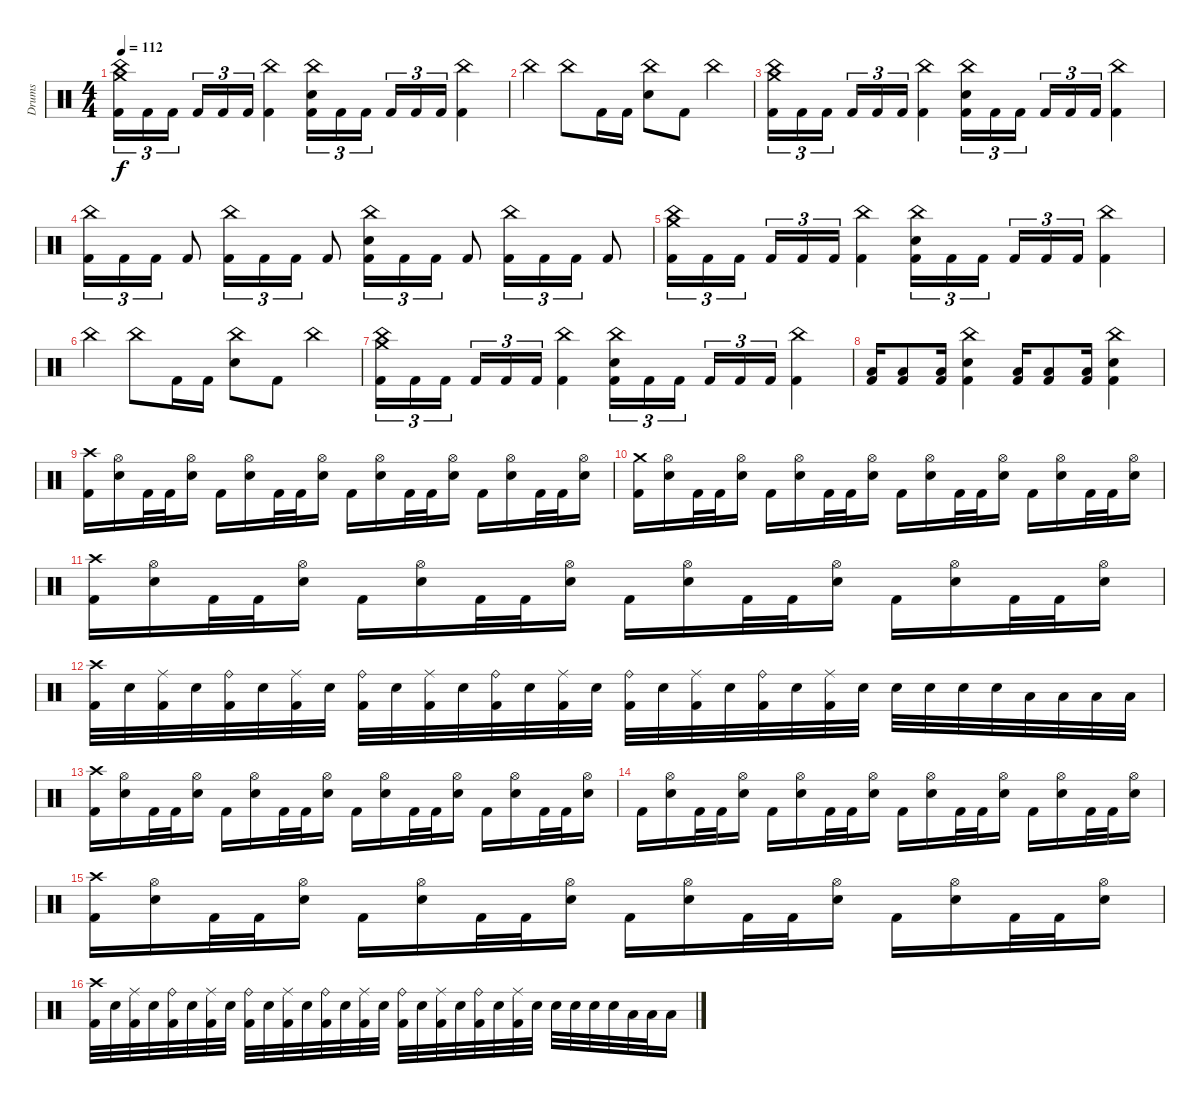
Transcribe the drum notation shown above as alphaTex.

\track ("Drums" "Drums") {instrument percussion}
\staff {score}
\articulation defaults
\ts (4 4)
\tempo 112
\clef neutral
\ks c
("Crash medium (hit)" "China (hit)" "Kick (hit) 2").16{tu (3 2) dy f} "Kick (hit) 2".16{tu (3 2)} "Kick (hit) 2".16{tu (3 2) beam splitsecondary} "Kick (hit) 2".16{tu (3 2)} "Kick (hit) 2".16{tu (3 2)} "Kick (hit) 2".16{tu (3 2)} ("China (hit)" "Kick (hit) 2").4 ("China (hit)" "Electric Snare (hit)" "Kick (hit) 2").16{tu (3 2)} "Kick (hit) 2".16{tu (3 2)} "Kick (hit) 2".16{tu (3 2) beam splitsecondary} "Kick (hit) 2".16{tu (3 2)} "Kick (hit) 2".16{tu (3 2)} "Kick (hit) 2".16{tu (3 2)} ("China (hit)" "Kick (hit) 2").4 |
"China (hit)".4 "China (hit)".8 "Kick (hit) 2".16 "Kick (hit) 2".16 ("China (hit)" "Electric Snare (hit)").8 "Kick (hit) 2".8 "China (hit)".4 |
("Crash medium (hit)" "China (hit)" "Kick (hit) 2").16{tu (3 2)} "Kick (hit) 2".16{tu (3 2)} "Kick (hit) 2".16{tu (3 2) beam splitsecondary} "Kick (hit) 2".16{tu (3 2)} "Kick (hit) 2".16{tu (3 2)} "Kick (hit) 2".16{tu (3 2)} ("China (hit)" "Kick (hit) 2").4 ("China (hit)" "Electric Snare (hit)" "Kick (hit) 2").16{tu (3 2)} "Kick (hit) 2".16{tu (3 2)} "Kick (hit) 2".16{tu (3 2) beam splitsecondary} "Kick (hit) 2".16{tu (3 2)} "Kick (hit) 2".16{tu (3 2)} "Kick (hit) 2".16{tu (3 2)} ("China (hit)" "Kick (hit) 2").4 |
("China (hit)" "Kick (hit) 2").16{tu (3 2)} "Kick (hit) 2".16{tu (3 2)} "Kick (hit) 2".16{tu (3 2)} "Kick (hit) 2".8 ("China (hit)" "Kick (hit) 2").16{tu (3 2)} "Kick (hit) 2".16{tu (3 2)} "Kick (hit) 2".16{tu (3 2)} "Kick (hit) 2".8 ("China (hit)" "Electric Snare (hit)" "Kick (hit) 2").16{tu (3 2)} "Kick (hit) 2".16{tu (3 2)} "Kick (hit) 2".16{tu (3 2)} "Kick (hit) 2".8 ("China (hit)" "Kick (hit) 2").16{tu (3 2)} "Kick (hit) 2".16{tu (3 2)} "Kick (hit) 2".16{tu (3 2)} "Kick (hit) 2".8 |
("Crash medium (hit)" "China (hit)" "Kick (hit) 2").16{tu (3 2)} "Kick (hit) 2".16{tu (3 2)} "Kick (hit) 2".16{tu (3 2) beam splitsecondary} "Kick (hit) 2".16{tu (3 2)} "Kick (hit) 2".16{tu (3 2)} "Kick (hit) 2".16{tu (3 2)} ("China (hit)" "Kick (hit) 2").4 ("China (hit)" "Electric Snare (hit)" "Kick (hit) 2").16{tu (3 2)} "Kick (hit) 2".16{tu (3 2)} "Kick (hit) 2".16{tu (3 2) beam splitsecondary} "Kick (hit) 2".16{tu (3 2)} "Kick (hit) 2".16{tu (3 2)} "Kick (hit) 2".16{tu (3 2)} ("China (hit)" "Kick (hit) 2").4 |
"China (hit)".4 "China (hit)".8 "Kick (hit) 2".16 "Kick (hit) 2".16 ("China (hit)" "Electric Snare (hit)").8 "Kick (hit) 2".8 "China (hit)".4 |
("Crash medium (hit)" "China (hit)" "Kick (hit) 2").16{tu (3 2)} "Kick (hit) 2".16{tu (3 2)} "Kick (hit) 2".16{tu (3 2) beam splitsecondary} "Kick (hit) 2".16{tu (3 2)} "Kick (hit) 2".16{tu (3 2)} "Kick (hit) 2".16{tu (3 2)} ("China (hit)" "Kick (hit) 2").4 ("China (hit)" "Electric Snare (hit)" "Kick (hit) 2").16{tu (3 2)} "Kick (hit) 2".16{tu (3 2)} "Kick (hit) 2".16{tu (3 2) beam splitsecondary} "Kick (hit) 2".16{tu (3 2)} "Kick (hit) 2".16{tu (3 2)} "Kick (hit) 2".16{tu (3 2)} ("China (hit)" "Kick (hit) 2").4 |
("Low Floor Tom (hit)" "Kick (hit) 2").16 ("Low Floor Tom (hit)" "Kick (hit) 2").8 ("Low Floor Tom (hit)" "Kick (hit) 2").16 ("China (hit)" "Electric Snare (hit)" "Kick (hit) 2").4 ("Low Floor Tom (hit)" "Kick (hit) 2").16 ("Low Floor Tom (hit)" "Kick (hit) 2").8 ("Low Floor Tom (hit)" "Kick (hit) 2").16 ("China (hit)" "Electric Snare (hit)" "Kick (hit) 2").4 |
("Crash high (hit)" "Kick (hit) 2").16 ("Hi-Hat (open)" "Electric Snare (hit)").16 "Kick (hit) 2".32 "Kick (hit) 2".32 ("Hi-Hat (open)" "Electric Snare (hit)").16 "Kick (hit) 2".16 ("Hi-Hat (open)" "Electric Snare (hit)").16 "Kick (hit) 2".32 "Kick (hit) 2".32 ("Hi-Hat (open)" "Electric Snare (hit)").16 "Kick (hit) 2".16 ("Hi-Hat (open)" "Electric Snare (hit)").16 "Kick (hit) 2".32 "Kick (hit) 2".32 ("Hi-Hat (open)" "Electric Snare (hit)").16 "Kick (hit) 2".16 ("Hi-Hat (open)" "Electric Snare (hit)").16 "Kick (hit) 2".32 "Kick (hit) 2".32 ("Hi-Hat (open)" "Electric Snare (hit)").16 |
("Crash medium (hit)" "Kick (hit) 2").16 ("Hi-Hat (open)" "Electric Snare (hit)").16 "Kick (hit) 2".32 "Kick (hit) 2".32 ("Hi-Hat (open)" "Electric Snare (hit)").16 "Kick (hit) 2".16 ("Hi-Hat (open)" "Electric Snare (hit)").16 "Kick (hit) 2".32 "Kick (hit) 2".32 ("Hi-Hat (open)" "Electric Snare (hit)").16 "Kick (hit) 2".16 ("Hi-Hat (open)" "Electric Snare (hit)").16 "Kick (hit) 2".32 "Kick (hit) 2".32 ("Hi-Hat (open)" "Electric Snare (hit)").16 "Kick (hit) 2".16 ("Hi-Hat (open)" "Electric Snare (hit)").16 "Kick (hit) 2".32 "Kick (hit) 2".32 ("Hi-Hat (open)" "Electric Snare (hit)").16 |
("Crash high (hit)" "Kick (hit) 2").16 ("Hi-Hat (open)" "Electric Snare (hit)").16 "Kick (hit) 2".32 "Kick (hit) 2".32 ("Hi-Hat (open)" "Electric Snare (hit)").16 "Kick (hit) 2".16 ("Hi-Hat (open)" "Electric Snare (hit)").16 "Kick (hit) 2".32 "Kick (hit) 2".32 ("Hi-Hat (open)" "Electric Snare (hit)").16 "Kick (hit) 2".16 ("Hi-Hat (open)" "Electric Snare (hit)").16 "Kick (hit) 2".32 "Kick (hit) 2".32 ("Hi-Hat (open)" "Electric Snare (hit)").16 "Kick (hit) 2".16 ("Hi-Hat (open)" "Electric Snare (hit)").16 "Kick (hit) 2".32 "Kick (hit) 2".32 ("Hi-Hat (open)" "Electric Snare (hit)").16 |
("Crash high (hit)" "Kick (hit) 2").32 "Electric Snare (hit)".32 ("Ride (middle)" "Kick (hit) 2").32 "Electric Snare (hit)".32 ("Ride (bell)" "Kick (hit) 2").32 "Electric Snare (hit)".32 ("Ride (middle)" "Kick (hit) 2").32 "Electric Snare (hit)".32 ("Ride (bell)" "Kick (hit) 2").32 "Electric Snare (hit)".32 ("Ride (middle)" "Kick (hit) 2").32 "Electric Snare (hit)".32 ("Ride (bell)" "Kick (hit) 2").32 "Electric Snare (hit)".32 ("Ride (middle)" "Kick (hit) 2").32 "Electric Snare (hit)".32 ("Ride (bell)" "Kick (hit) 2").32 "Electric Snare (hit)".32 ("Ride (middle)" "Kick (hit) 2").32 "Electric Snare (hit)".32 ("Ride (bell)" "Kick (hit) 2").32 "Electric Snare (hit)".32 ("Ride (middle)" "Kick (hit) 2").32 "Electric Snare (hit)".32 "Electric Snare (hit)".32 "Electric Snare (hit)".32 "Electric Snare (hit)".32 "Electric Snare (hit)".32 "Low Tom (hit)".32 "Low Tom (hit)".32 "Low Tom (hit)".32 "Low Tom (hit)".32 |
("Crash high (hit)" "Kick (hit) 2").16 ("Hi-Hat (open)" "Electric Snare (hit)").16 "Kick (hit) 2".32 "Kick (hit) 2".32 ("Hi-Hat (open)" "Electric Snare (hit)").16 "Kick (hit) 2".16 ("Hi-Hat (open)" "Electric Snare (hit)").16 "Kick (hit) 2".32 "Kick (hit) 2".32 ("Hi-Hat (open)" "Electric Snare (hit)").16 "Kick (hit) 2".16 ("Hi-Hat (open)" "Electric Snare (hit)").16 "Kick (hit) 2".32 "Kick (hit) 2".32 ("Hi-Hat (open)" "Electric Snare (hit)").16 "Kick (hit) 2".16 ("Hi-Hat (open)" "Electric Snare (hit)").16 "Kick (hit) 2".32 "Kick (hit) 2".32 ("Hi-Hat (open)" "Electric Snare (hit)").16 |
"Kick (hit) 2".16 ("Hi-Hat (open)" "Electric Snare (hit)").16 "Kick (hit) 2".32 "Kick (hit) 2".32 ("Hi-Hat (open)" "Electric Snare (hit)").16 "Kick (hit) 2".16 ("Hi-Hat (open)" "Electric Snare (hit)").16 "Kick (hit) 2".32 "Kick (hit) 2".32 ("Hi-Hat (open)" "Electric Snare (hit)").16 "Kick (hit) 2".16 ("Hi-Hat (open)" "Electric Snare (hit)").16 "Kick (hit) 2".32 "Kick (hit) 2".32 ("Hi-Hat (open)" "Electric Snare (hit)").16 "Kick (hit) 2".16 ("Hi-Hat (open)" "Electric Snare (hit)").16 "Kick (hit) 2".32 "Kick (hit) 2".32 ("Hi-Hat (open)" "Electric Snare (hit)").16 |
("Crash high (hit)" "Kick (hit) 2").16 ("Hi-Hat (open)" "Electric Snare (hit)").16 "Kick (hit) 2".32 "Kick (hit) 2".32 ("Hi-Hat (open)" "Electric Snare (hit)").16 "Kick (hit) 2".16 ("Hi-Hat (open)" "Electric Snare (hit)").16 "Kick (hit) 2".32 "Kick (hit) 2".32 ("Hi-Hat (open)" "Electric Snare (hit)").16 "Kick (hit) 2".16 ("Hi-Hat (open)" "Electric Snare (hit)").16 "Kick (hit) 2".32 "Kick (hit) 2".32 ("Hi-Hat (open)" "Electric Snare (hit)").16 "Kick (hit) 2".16 ("Hi-Hat (open)" "Electric Snare (hit)").16 "Kick (hit) 2".32 "Kick (hit) 2".32 ("Hi-Hat (open)" "Electric Snare (hit)").16 |
("Crash high (hit)" "Kick (hit) 2").32 "Electric Snare (hit)".32 ("Ride (middle)" "Kick (hit) 2").32 "Electric Snare (hit)".32 ("Ride (bell)" "Kick (hit) 2").32 "Electric Snare (hit)".32 ("Ride (middle)" "Kick (hit) 2").32 "Electric Snare (hit)".32 ("Ride (bell)" "Kick (hit) 2").32 "Electric Snare (hit)".32 ("Ride (middle)" "Kick (hit) 2").32 "Electric Snare (hit)".32 ("Ride (bell)" "Kick (hit) 2").32 "Electric Snare (hit)".32 ("Ride (middle)" "Kick (hit) 2").32 "Electric Snare (hit)".32 ("Ride (bell)" "Kick (hit) 2").32 "Electric Snare (hit)".32 ("Ride (middle)" "Kick (hit) 2").32 "Electric Snare (hit)".32 ("Ride (bell)" "Kick (hit) 2").32 "Electric Snare (hit)".32 ("Ride (middle)" "Kick (hit) 2").32 "Electric Snare (hit)".32 "Electric Snare (hit)".32 "Electric Snare (hit)".32 "Electric Snare (hit)".32 "Electric Snare (hit)".32 "Low Tom (hit)".32 "Low Tom (hit)".32 "Low Tom (hit)".16
